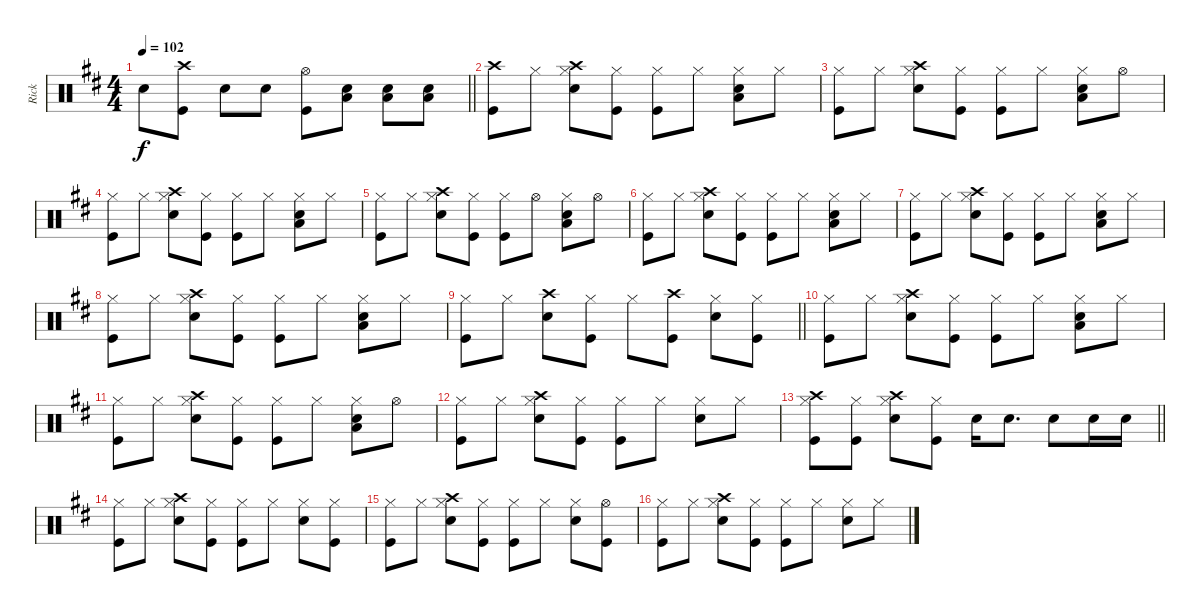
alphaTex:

\track ("Rick" "Rick") {instrument percussion}
\staff {score}
\articulation defaults
\ts (4 4)
\tempo 102
\clef neutral
\barLineRight lightlight
\ks d "Snare (hit) 2".8{dy f}
("Crash high (hit)" "Kick (hit)").8 "Snare (hit) 2".8 "Snare (hit) 2".8 ("Hi-Hat (open)" "Kick (hit)").8 ("Snare (hit) 2" "Low Tom (hit)").8 ("Snare (hit) 2" "Low Tom (hit)").8 ("Snare (hit) 2" "Low Tom (hit)").8 |
("Crash high (hit)" "Kick (hit)").8 "Hi-Hat (closed)".8 ("Crash high (hit)" "Hi-Hat (closed)" "Snare (hit) 2").8 ("Hi-Hat (closed)" "Kick (hit)").8 ("Hi-Hat (closed)" "Kick (hit)").8 "Hi-Hat (closed)".8 ("Hi-Hat (closed)" "Snare (hit) 2" "Low Tom (hit)").8 "Hi-Hat (closed)".8 |
("Hi-Hat (closed)" "Kick (hit)").8 "Hi-Hat (closed)".8 ("Crash high (hit)" "Hi-Hat (closed)" "Snare (hit) 2").8 ("Hi-Hat (closed)" "Kick (hit)").8 ("Hi-Hat (closed)" "Kick (hit)").8 "Hi-Hat (closed)".8 ("Hi-Hat (closed)" "Snare (hit) 2" "Low Tom (hit)").8 "Hi-Hat (open)".8 |
("Hi-Hat (closed)" "Kick (hit)").8 "Hi-Hat (closed)".8 ("Crash high (hit)" "Hi-Hat (closed)" "Snare (hit) 2").8 ("Hi-Hat (closed)" "Kick (hit)").8 ("Hi-Hat (closed)" "Kick (hit)").8 "Hi-Hat (closed)".8 ("Hi-Hat (closed)" "Snare (hit) 2" "Low Tom (hit)").8 "Hi-Hat (closed)".8 |
("Hi-Hat (closed)" "Kick (hit)").8 "Hi-Hat (closed)".8 ("Crash high (hit)" "Hi-Hat (closed)" "Snare (hit) 2").8 ("Hi-Hat (closed)" "Kick (hit)").8 ("Hi-Hat (closed)" "Kick (hit)").8 "Hi-Hat (open)".8 ("Hi-Hat (closed)" "Snare (hit) 2" "Low Tom (hit)").8 "Hi-Hat (open)".8 |
("Hi-Hat (closed)" "Kick (hit)").8 "Hi-Hat (closed)".8 ("Crash high (hit)" "Hi-Hat (closed)" "Snare (hit) 2").8 ("Hi-Hat (closed)" "Kick (hit)").8 ("Hi-Hat (closed)" "Kick (hit)").8 "Hi-Hat (closed)".8 ("Hi-Hat (closed)" "Snare (hit) 2" "Low Tom (hit)").8 "Hi-Hat (closed)".8 |
("Hi-Hat (closed)" "Kick (hit)").8 "Hi-Hat (closed)".8 ("Crash high (hit)" "Hi-Hat (closed)" "Snare (hit) 2").8 ("Hi-Hat (closed)" "Kick (hit)").8 ("Hi-Hat (closed)" "Kick (hit)").8 "Hi-Hat (closed)".8 ("Hi-Hat (closed)" "Snare (hit) 2" "Low Tom (hit)").8 "Hi-Hat (closed)".8 |
("Hi-Hat (closed)" "Kick (hit)").8 "Hi-Hat (closed)".8 ("Crash high (hit)" "Hi-Hat (closed)" "Snare (hit) 2").8 ("Hi-Hat (closed)" "Kick (hit)").8 ("Hi-Hat (closed)" "Kick (hit)").8 "Hi-Hat (closed)".8 ("Hi-Hat (closed)" "Snare (hit) 2" "Low Tom (hit)").8 "Hi-Hat (closed)".8 |
\barLineRight lightlight
("Hi-Hat (closed)" "Kick (hit)").8 "Hi-Hat (closed)".8 ("Crash high (hit)" "Snare (hit) 2").8 ("Hi-Hat (closed)" "Kick (hit)").8 "Hi-Hat (closed)".8 ("Crash high (hit)" "Kick (hit)").8 ("Hi-Hat (closed)" "Snare (hit) 2").8 ("Hi-Hat (closed)" "Kick (hit)").8 |
("Hi-Hat (closed)" "Kick (hit)").8 "Hi-Hat (closed)".8 ("Crash high (hit)" "Hi-Hat (closed)" "Snare (hit) 2").8 ("Hi-Hat (closed)" "Kick (hit)").8 ("Hi-Hat (closed)" "Kick (hit)").8 "Hi-Hat (closed)".8 ("Hi-Hat (closed)" "Snare (hit) 2" "Low Tom (hit)").8 "Hi-Hat (closed)".8 |
("Hi-Hat (closed)" "Kick (hit)").8 "Hi-Hat (closed)".8 ("Crash high (hit)" "Snare (hit) 2" "Hi-Hat (closed)").8 ("Hi-Hat (closed)" "Kick (hit)").8 ("Hi-Hat (closed)" "Kick (hit)").8 "Hi-Hat (closed)".8 ("Hi-Hat (closed)" "Snare (hit) 2" "Low Tom (hit)").8 "Hi-Hat (open)".8 |
("Hi-Hat (closed)" "Kick (hit)").8 "Hi-Hat (closed)".8 ("Crash high (hit)" "Snare (hit) 2" "Hi-Hat (closed)").8 ("Hi-Hat (closed)" "Kick (hit)").8 ("Hi-Hat (closed)" "Kick (hit)").8 "Hi-Hat (closed)".8 ("Hi-Hat (closed)" "Snare (hit) 2").8 "Hi-Hat (closed)".8 |
\barLineRight lightlight
("Crash high (hit)" "Hi-Hat (closed)" "Kick (hit)").8 ("Hi-Hat (closed)" "Kick (hit)").8 ("Crash high (hit)" "Snare (hit) 2" "Hi-Hat (closed)").8 ("Hi-Hat (closed)" "Kick (hit)").8 "Snare (hit) 2".16 "Snare (hit) 2".8{d} "Snare (hit) 2".8 "Snare (hit) 2".16 "Snare (hit) 2".16 |
("Hi-Hat (closed)" "Kick (hit)").8 "Hi-Hat (closed)".8 ("Crash high (hit)" "Snare (hit) 2" "Hi-Hat (closed)").8 ("Hi-Hat (closed)" "Kick (hit)").8 ("Hi-Hat (closed)" "Kick (hit)").8 "Hi-Hat (closed)".8 ("Hi-Hat (closed)" "Snare (hit) 2").8 ("Hi-Hat (closed)" "Kick (hit)").8 |
("Hi-Hat (closed)" "Kick (hit)").8 "Hi-Hat (closed)".8 ("Crash high (hit)" "Snare (hit) 2" "Hi-Hat (closed)").8 ("Hi-Hat (closed)" "Kick (hit)").8 ("Hi-Hat (closed)" "Kick (hit)").8 "Hi-Hat (closed)".8 ("Hi-Hat (closed)" "Snare (hit) 2").8 ("Hi-Hat (open)" "Kick (hit)").8 |
("Hi-Hat (closed)" "Kick (hit)").8 "Hi-Hat (closed)".8 ("Crash high (hit)" "Snare (hit) 2" "Hi-Hat (closed)").8 ("Hi-Hat (closed)" "Kick (hit)").8 ("Hi-Hat (closed)" "Kick (hit)").8 "Hi-Hat (closed)".8 ("Hi-Hat (closed)" "Snare (hit) 2").8 "Hi-Hat (closed)".8
